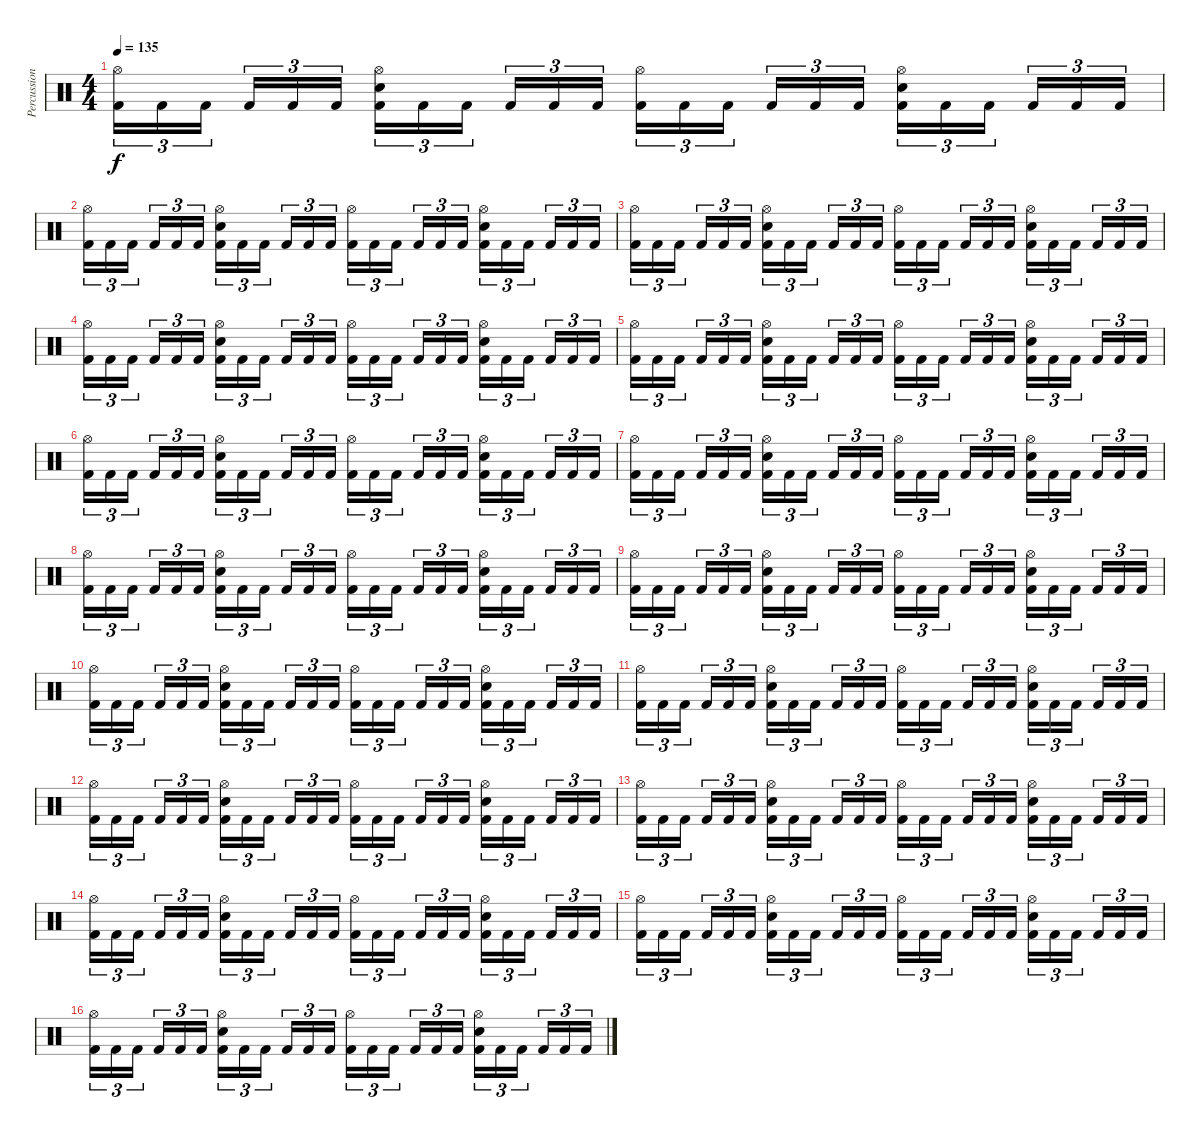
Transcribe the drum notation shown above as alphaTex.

\track ("Percussions" "Percussion") {instrument percussion}
\staff {score}
\articulation defaults
\ts (4 4)
\tempo 135
\clef neutral
\ks c
("Hi-Hat (open)" "Kick (hit) 2").16{tu (3 2) dy f} "Kick (hit) 2".16{tu (3 2)} "Kick (hit) 2".16{tu (3 2)} "Kick (hit) 2".16{tu (3 2)} "Kick (hit) 2".16{tu (3 2)} "Kick (hit) 2".16{tu (3 2)} ("Hi-Hat (open)" "Snare (hit) 2" "Kick (hit) 2").16{tu (3 2)} "Kick (hit) 2".16{tu (3 2)} "Kick (hit) 2".16{tu (3 2)} "Kick (hit) 2".16{tu (3 2)} "Kick (hit) 2".16{tu (3 2)} "Kick (hit) 2".16{tu (3 2)} ("Hi-Hat (open)" "Kick (hit) 2").16{tu (3 2)} "Kick (hit) 2".16{tu (3 2)} "Kick (hit) 2".16{tu (3 2)} "Kick (hit) 2".16{tu (3 2)} "Kick (hit) 2".16{tu (3 2)} "Kick (hit) 2".16{tu (3 2)} ("Hi-Hat (open)" "Snare (hit) 2" "Kick (hit) 2").16{tu (3 2)} "Kick (hit) 2".16{tu (3 2)} "Kick (hit) 2".16{tu (3 2)} "Kick (hit) 2".16{tu (3 2)} "Kick (hit) 2".16{tu (3 2)} "Kick (hit) 2".16{tu (3 2)} |
("Hi-Hat (open)" "Kick (hit) 2").16{tu (3 2)} "Kick (hit) 2".16{tu (3 2)} "Kick (hit) 2".16{tu (3 2)} "Kick (hit) 2".16{tu (3 2)} "Kick (hit) 2".16{tu (3 2)} "Kick (hit) 2".16{tu (3 2)} ("Hi-Hat (open)" "Snare (hit) 2" "Kick (hit) 2").16{tu (3 2)} "Kick (hit) 2".16{tu (3 2)} "Kick (hit) 2".16{tu (3 2)} "Kick (hit) 2".16{tu (3 2)} "Kick (hit) 2".16{tu (3 2)} "Kick (hit) 2".16{tu (3 2)} ("Hi-Hat (open)" "Kick (hit) 2").16{tu (3 2)} "Kick (hit) 2".16{tu (3 2)} "Kick (hit) 2".16{tu (3 2)} "Kick (hit) 2".16{tu (3 2)} "Kick (hit) 2".16{tu (3 2)} "Kick (hit) 2".16{tu (3 2)} ("Hi-Hat (open)" "Snare (hit) 2" "Kick (hit) 2").16{tu (3 2)} "Kick (hit) 2".16{tu (3 2)} "Kick (hit) 2".16{tu (3 2)} "Kick (hit) 2".16{tu (3 2)} "Kick (hit) 2".16{tu (3 2)} "Kick (hit) 2".16{tu (3 2)} |
("Hi-Hat (open)" "Kick (hit) 2").16{tu (3 2)} "Kick (hit) 2".16{tu (3 2)} "Kick (hit) 2".16{tu (3 2)} "Kick (hit) 2".16{tu (3 2)} "Kick (hit) 2".16{tu (3 2)} "Kick (hit) 2".16{tu (3 2)} ("Hi-Hat (open)" "Snare (hit) 2" "Kick (hit) 2").16{tu (3 2)} "Kick (hit) 2".16{tu (3 2)} "Kick (hit) 2".16{tu (3 2)} "Kick (hit) 2".16{tu (3 2)} "Kick (hit) 2".16{tu (3 2)} "Kick (hit) 2".16{tu (3 2)} ("Hi-Hat (open)" "Kick (hit) 2").16{tu (3 2)} "Kick (hit) 2".16{tu (3 2)} "Kick (hit) 2".16{tu (3 2)} "Kick (hit) 2".16{tu (3 2)} "Kick (hit) 2".16{tu (3 2)} "Kick (hit) 2".16{tu (3 2)} ("Hi-Hat (open)" "Snare (hit) 2" "Kick (hit) 2").16{tu (3 2)} "Kick (hit) 2".16{tu (3 2)} "Kick (hit) 2".16{tu (3 2)} "Kick (hit) 2".16{tu (3 2)} "Kick (hit) 2".16{tu (3 2)} "Kick (hit) 2".16{tu (3 2)} |
("Hi-Hat (open)" "Kick (hit) 2").16{tu (3 2)} "Kick (hit) 2".16{tu (3 2)} "Kick (hit) 2".16{tu (3 2)} "Kick (hit) 2".16{tu (3 2)} "Kick (hit) 2".16{tu (3 2)} "Kick (hit) 2".16{tu (3 2)} ("Hi-Hat (open)" "Snare (hit) 2" "Kick (hit) 2").16{tu (3 2)} "Kick (hit) 2".16{tu (3 2)} "Kick (hit) 2".16{tu (3 2)} "Kick (hit) 2".16{tu (3 2)} "Kick (hit) 2".16{tu (3 2)} "Kick (hit) 2".16{tu (3 2)} ("Hi-Hat (open)" "Kick (hit) 2").16{tu (3 2)} "Kick (hit) 2".16{tu (3 2)} "Kick (hit) 2".16{tu (3 2)} "Kick (hit) 2".16{tu (3 2)} "Kick (hit) 2".16{tu (3 2)} "Kick (hit) 2".16{tu (3 2)} ("Hi-Hat (open)" "Snare (hit) 2" "Kick (hit) 2").16{tu (3 2)} "Kick (hit) 2".16{tu (3 2)} "Kick (hit) 2".16{tu (3 2)} "Kick (hit) 2".16{tu (3 2)} "Kick (hit) 2".16{tu (3 2)} "Kick (hit) 2".16{tu (3 2)} |
("Hi-Hat (open)" "Kick (hit) 2").16{tu (3 2)} "Kick (hit) 2".16{tu (3 2)} "Kick (hit) 2".16{tu (3 2)} "Kick (hit) 2".16{tu (3 2)} "Kick (hit) 2".16{tu (3 2)} "Kick (hit) 2".16{tu (3 2)} ("Hi-Hat (open)" "Snare (hit) 2" "Kick (hit) 2").16{tu (3 2)} "Kick (hit) 2".16{tu (3 2)} "Kick (hit) 2".16{tu (3 2)} "Kick (hit) 2".16{tu (3 2)} "Kick (hit) 2".16{tu (3 2)} "Kick (hit) 2".16{tu (3 2)} ("Hi-Hat (open)" "Kick (hit) 2").16{tu (3 2)} "Kick (hit) 2".16{tu (3 2)} "Kick (hit) 2".16{tu (3 2)} "Kick (hit) 2".16{tu (3 2)} "Kick (hit) 2".16{tu (3 2)} "Kick (hit) 2".16{tu (3 2)} ("Hi-Hat (open)" "Snare (hit) 2" "Kick (hit) 2").16{tu (3 2)} "Kick (hit) 2".16{tu (3 2)} "Kick (hit) 2".16{tu (3 2)} "Kick (hit) 2".16{tu (3 2)} "Kick (hit) 2".16{tu (3 2)} "Kick (hit) 2".16{tu (3 2)} |
("Hi-Hat (open)" "Kick (hit) 2").16{tu (3 2)} "Kick (hit) 2".16{tu (3 2)} "Kick (hit) 2".16{tu (3 2)} "Kick (hit) 2".16{tu (3 2)} "Kick (hit) 2".16{tu (3 2)} "Kick (hit) 2".16{tu (3 2)} ("Hi-Hat (open)" "Snare (hit) 2" "Kick (hit) 2").16{tu (3 2)} "Kick (hit) 2".16{tu (3 2)} "Kick (hit) 2".16{tu (3 2)} "Kick (hit) 2".16{tu (3 2)} "Kick (hit) 2".16{tu (3 2)} "Kick (hit) 2".16{tu (3 2)} ("Hi-Hat (open)" "Kick (hit) 2").16{tu (3 2)} "Kick (hit) 2".16{tu (3 2)} "Kick (hit) 2".16{tu (3 2)} "Kick (hit) 2".16{tu (3 2)} "Kick (hit) 2".16{tu (3 2)} "Kick (hit) 2".16{tu (3 2)} ("Hi-Hat (open)" "Snare (hit) 2" "Kick (hit) 2").16{tu (3 2)} "Kick (hit) 2".16{tu (3 2)} "Kick (hit) 2".16{tu (3 2)} "Kick (hit) 2".16{tu (3 2)} "Kick (hit) 2".16{tu (3 2)} "Kick (hit) 2".16{tu (3 2)} |
("Hi-Hat (open)" "Kick (hit) 2").16{tu (3 2)} "Kick (hit) 2".16{tu (3 2)} "Kick (hit) 2".16{tu (3 2)} "Kick (hit) 2".16{tu (3 2)} "Kick (hit) 2".16{tu (3 2)} "Kick (hit) 2".16{tu (3 2)} ("Hi-Hat (open)" "Snare (hit) 2" "Kick (hit) 2").16{tu (3 2)} "Kick (hit) 2".16{tu (3 2)} "Kick (hit) 2".16{tu (3 2)} "Kick (hit) 2".16{tu (3 2)} "Kick (hit) 2".16{tu (3 2)} "Kick (hit) 2".16{tu (3 2)} ("Hi-Hat (open)" "Kick (hit) 2").16{tu (3 2)} "Kick (hit) 2".16{tu (3 2)} "Kick (hit) 2".16{tu (3 2)} "Kick (hit) 2".16{tu (3 2)} "Kick (hit) 2".16{tu (3 2)} "Kick (hit) 2".16{tu (3 2)} ("Hi-Hat (open)" "Snare (hit) 2" "Kick (hit) 2").16{tu (3 2)} "Kick (hit) 2".16{tu (3 2)} "Kick (hit) 2".16{tu (3 2)} "Kick (hit) 2".16{tu (3 2)} "Kick (hit) 2".16{tu (3 2)} "Kick (hit) 2".16{tu (3 2)} |
("Hi-Hat (open)" "Kick (hit) 2").16{tu (3 2)} "Kick (hit) 2".16{tu (3 2)} "Kick (hit) 2".16{tu (3 2)} "Kick (hit) 2".16{tu (3 2)} "Kick (hit) 2".16{tu (3 2)} "Kick (hit) 2".16{tu (3 2)} ("Hi-Hat (open)" "Snare (hit) 2" "Kick (hit) 2").16{tu (3 2)} "Kick (hit) 2".16{tu (3 2)} "Kick (hit) 2".16{tu (3 2)} "Kick (hit) 2".16{tu (3 2)} "Kick (hit) 2".16{tu (3 2)} "Kick (hit) 2".16{tu (3 2)} ("Hi-Hat (open)" "Kick (hit) 2").16{tu (3 2)} "Kick (hit) 2".16{tu (3 2)} "Kick (hit) 2".16{tu (3 2)} "Kick (hit) 2".16{tu (3 2)} "Kick (hit) 2".16{tu (3 2)} "Kick (hit) 2".16{tu (3 2)} ("Hi-Hat (open)" "Snare (hit) 2" "Kick (hit) 2").16{tu (3 2)} "Kick (hit) 2".16{tu (3 2)} "Kick (hit) 2".16{tu (3 2)} "Kick (hit) 2".16{tu (3 2)} "Kick (hit) 2".16{tu (3 2)} "Kick (hit) 2".16{tu (3 2)} |
("Hi-Hat (open)" "Kick (hit) 2").16{tu (3 2)} "Kick (hit) 2".16{tu (3 2)} "Kick (hit) 2".16{tu (3 2)} "Kick (hit) 2".16{tu (3 2)} "Kick (hit) 2".16{tu (3 2)} "Kick (hit) 2".16{tu (3 2)} ("Hi-Hat (open)" "Snare (hit) 2" "Kick (hit) 2").16{tu (3 2)} "Kick (hit) 2".16{tu (3 2)} "Kick (hit) 2".16{tu (3 2)} "Kick (hit) 2".16{tu (3 2)} "Kick (hit) 2".16{tu (3 2)} "Kick (hit) 2".16{tu (3 2)} ("Hi-Hat (open)" "Kick (hit) 2").16{tu (3 2)} "Kick (hit) 2".16{tu (3 2)} "Kick (hit) 2".16{tu (3 2)} "Kick (hit) 2".16{tu (3 2)} "Kick (hit) 2".16{tu (3 2)} "Kick (hit) 2".16{tu (3 2)} ("Hi-Hat (open)" "Snare (hit) 2" "Kick (hit) 2").16{tu (3 2)} "Kick (hit) 2".16{tu (3 2)} "Kick (hit) 2".16{tu (3 2)} "Kick (hit) 2".16{tu (3 2)} "Kick (hit) 2".16{tu (3 2)} "Kick (hit) 2".16{tu (3 2)} |
("Hi-Hat (open)" "Kick (hit) 2").16{tu (3 2)} "Kick (hit) 2".16{tu (3 2)} "Kick (hit) 2".16{tu (3 2)} "Kick (hit) 2".16{tu (3 2)} "Kick (hit) 2".16{tu (3 2)} "Kick (hit) 2".16{tu (3 2)} ("Hi-Hat (open)" "Snare (hit) 2" "Kick (hit) 2").16{tu (3 2)} "Kick (hit) 2".16{tu (3 2)} "Kick (hit) 2".16{tu (3 2)} "Kick (hit) 2".16{tu (3 2)} "Kick (hit) 2".16{tu (3 2)} "Kick (hit) 2".16{tu (3 2)} ("Hi-Hat (open)" "Kick (hit) 2").16{tu (3 2)} "Kick (hit) 2".16{tu (3 2)} "Kick (hit) 2".16{tu (3 2)} "Kick (hit) 2".16{tu (3 2)} "Kick (hit) 2".16{tu (3 2)} "Kick (hit) 2".16{tu (3 2)} ("Hi-Hat (open)" "Snare (hit) 2" "Kick (hit) 2").16{tu (3 2)} "Kick (hit) 2".16{tu (3 2)} "Kick (hit) 2".16{tu (3 2)} "Kick (hit) 2".16{tu (3 2)} "Kick (hit) 2".16{tu (3 2)} "Kick (hit) 2".16{tu (3 2)} |
("Hi-Hat (open)" "Kick (hit) 2").16{tu (3 2)} "Kick (hit) 2".16{tu (3 2)} "Kick (hit) 2".16{tu (3 2)} "Kick (hit) 2".16{tu (3 2)} "Kick (hit) 2".16{tu (3 2)} "Kick (hit) 2".16{tu (3 2)} ("Hi-Hat (open)" "Snare (hit) 2" "Kick (hit) 2").16{tu (3 2)} "Kick (hit) 2".16{tu (3 2)} "Kick (hit) 2".16{tu (3 2)} "Kick (hit) 2".16{tu (3 2)} "Kick (hit) 2".16{tu (3 2)} "Kick (hit) 2".16{tu (3 2)} ("Hi-Hat (open)" "Kick (hit) 2").16{tu (3 2)} "Kick (hit) 2".16{tu (3 2)} "Kick (hit) 2".16{tu (3 2)} "Kick (hit) 2".16{tu (3 2)} "Kick (hit) 2".16{tu (3 2)} "Kick (hit) 2".16{tu (3 2)} ("Hi-Hat (open)" "Snare (hit) 2" "Kick (hit) 2").16{tu (3 2)} "Kick (hit) 2".16{tu (3 2)} "Kick (hit) 2".16{tu (3 2)} "Kick (hit) 2".16{tu (3 2)} "Kick (hit) 2".16{tu (3 2)} "Kick (hit) 2".16{tu (3 2)} |
("Hi-Hat (open)" "Kick (hit) 2").16{tu (3 2)} "Kick (hit) 2".16{tu (3 2)} "Kick (hit) 2".16{tu (3 2)} "Kick (hit) 2".16{tu (3 2)} "Kick (hit) 2".16{tu (3 2)} "Kick (hit) 2".16{tu (3 2)} ("Hi-Hat (open)" "Snare (hit) 2" "Kick (hit) 2").16{tu (3 2)} "Kick (hit) 2".16{tu (3 2)} "Kick (hit) 2".16{tu (3 2)} "Kick (hit) 2".16{tu (3 2)} "Kick (hit) 2".16{tu (3 2)} "Kick (hit) 2".16{tu (3 2)} ("Hi-Hat (open)" "Kick (hit) 2").16{tu (3 2)} "Kick (hit) 2".16{tu (3 2)} "Kick (hit) 2".16{tu (3 2)} "Kick (hit) 2".16{tu (3 2)} "Kick (hit) 2".16{tu (3 2)} "Kick (hit) 2".16{tu (3 2)} ("Hi-Hat (open)" "Snare (hit) 2" "Kick (hit) 2").16{tu (3 2)} "Kick (hit) 2".16{tu (3 2)} "Kick (hit) 2".16{tu (3 2)} "Kick (hit) 2".16{tu (3 2)} "Kick (hit) 2".16{tu (3 2)} "Kick (hit) 2".16{tu (3 2)} |
("Hi-Hat (open)" "Kick (hit) 2").16{tu (3 2)} "Kick (hit) 2".16{tu (3 2)} "Kick (hit) 2".16{tu (3 2)} "Kick (hit) 2".16{tu (3 2)} "Kick (hit) 2".16{tu (3 2)} "Kick (hit) 2".16{tu (3 2)} ("Hi-Hat (open)" "Snare (hit) 2" "Kick (hit) 2").16{tu (3 2)} "Kick (hit) 2".16{tu (3 2)} "Kick (hit) 2".16{tu (3 2)} "Kick (hit) 2".16{tu (3 2)} "Kick (hit) 2".16{tu (3 2)} "Kick (hit) 2".16{tu (3 2)} ("Hi-Hat (open)" "Kick (hit) 2").16{tu (3 2)} "Kick (hit) 2".16{tu (3 2)} "Kick (hit) 2".16{tu (3 2)} "Kick (hit) 2".16{tu (3 2)} "Kick (hit) 2".16{tu (3 2)} "Kick (hit) 2".16{tu (3 2)} ("Hi-Hat (open)" "Snare (hit) 2" "Kick (hit) 2").16{tu (3 2)} "Kick (hit) 2".16{tu (3 2)} "Kick (hit) 2".16{tu (3 2)} "Kick (hit) 2".16{tu (3 2)} "Kick (hit) 2".16{tu (3 2)} "Kick (hit) 2".16{tu (3 2)} |
("Hi-Hat (open)" "Kick (hit) 2").16{tu (3 2)} "Kick (hit) 2".16{tu (3 2)} "Kick (hit) 2".16{tu (3 2)} "Kick (hit) 2".16{tu (3 2)} "Kick (hit) 2".16{tu (3 2)} "Kick (hit) 2".16{tu (3 2)} ("Hi-Hat (open)" "Snare (hit) 2" "Kick (hit) 2").16{tu (3 2)} "Kick (hit) 2".16{tu (3 2)} "Kick (hit) 2".16{tu (3 2)} "Kick (hit) 2".16{tu (3 2)} "Kick (hit) 2".16{tu (3 2)} "Kick (hit) 2".16{tu (3 2)} ("Hi-Hat (open)" "Kick (hit) 2").16{tu (3 2)} "Kick (hit) 2".16{tu (3 2)} "Kick (hit) 2".16{tu (3 2)} "Kick (hit) 2".16{tu (3 2)} "Kick (hit) 2".16{tu (3 2)} "Kick (hit) 2".16{tu (3 2)} ("Hi-Hat (open)" "Snare (hit) 2" "Kick (hit) 2").16{tu (3 2)} "Kick (hit) 2".16{tu (3 2)} "Kick (hit) 2".16{tu (3 2)} "Kick (hit) 2".16{tu (3 2)} "Kick (hit) 2".16{tu (3 2)} "Kick (hit) 2".16{tu (3 2)} |
("Hi-Hat (open)" "Kick (hit) 2").16{tu (3 2)} "Kick (hit) 2".16{tu (3 2)} "Kick (hit) 2".16{tu (3 2)} "Kick (hit) 2".16{tu (3 2)} "Kick (hit) 2".16{tu (3 2)} "Kick (hit) 2".16{tu (3 2)} ("Hi-Hat (open)" "Snare (hit) 2" "Kick (hit) 2").16{tu (3 2)} "Kick (hit) 2".16{tu (3 2)} "Kick (hit) 2".16{tu (3 2)} "Kick (hit) 2".16{tu (3 2)} "Kick (hit) 2".16{tu (3 2)} "Kick (hit) 2".16{tu (3 2)} ("Hi-Hat (open)" "Kick (hit) 2").16{tu (3 2)} "Kick (hit) 2".16{tu (3 2)} "Kick (hit) 2".16{tu (3 2)} "Kick (hit) 2".16{tu (3 2)} "Kick (hit) 2".16{tu (3 2)} "Kick (hit) 2".16{tu (3 2)} ("Hi-Hat (open)" "Snare (hit) 2" "Kick (hit) 2").16{tu (3 2)} "Kick (hit) 2".16{tu (3 2)} "Kick (hit) 2".16{tu (3 2)} "Kick (hit) 2".16{tu (3 2)} "Kick (hit) 2".16{tu (3 2)} "Kick (hit) 2".16{tu (3 2)} |
("Hi-Hat (open)" "Kick (hit) 2").16{tu (3 2)} "Kick (hit) 2".16{tu (3 2)} "Kick (hit) 2".16{tu (3 2)} "Kick (hit) 2".16{tu (3 2)} "Kick (hit) 2".16{tu (3 2)} "Kick (hit) 2".16{tu (3 2)} ("Hi-Hat (open)" "Snare (hit) 2" "Kick (hit) 2").16{tu (3 2)} "Kick (hit) 2".16{tu (3 2)} "Kick (hit) 2".16{tu (3 2)} "Kick (hit) 2".16{tu (3 2)} "Kick (hit) 2".16{tu (3 2)} "Kick (hit) 2".16{tu (3 2)} ("Hi-Hat (open)" "Kick (hit) 2").16{tu (3 2)} "Kick (hit) 2".16{tu (3 2)} "Kick (hit) 2".16{tu (3 2)} "Kick (hit) 2".16{tu (3 2)} "Kick (hit) 2".16{tu (3 2)} "Kick (hit) 2".16{tu (3 2)} ("Hi-Hat (open)" "Snare (hit) 2" "Kick (hit) 2").16{tu (3 2)} "Kick (hit) 2".16{tu (3 2)} "Kick (hit) 2".16{tu (3 2)} "Kick (hit) 2".16{tu (3 2)} "Kick (hit) 2".16{tu (3 2)} "Kick (hit) 2".16{tu (3 2)}
